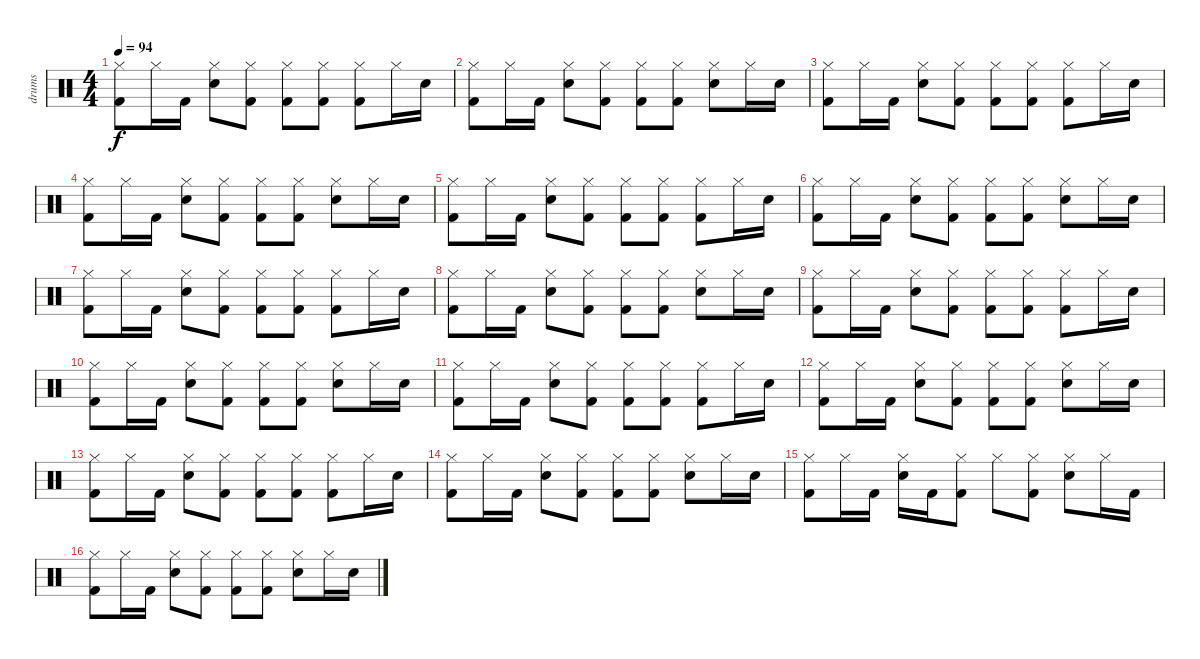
\track ("drums" "drums") {instrument percussion}
\staff {score}
\articulation defaults
\ts (4 4)
\tempo 94
\clef neutral
\ks c
("Kick (hit) 2" "Hi-Hat (closed)").8{dy f} "Hi-Hat (closed)".16 "Kick (hit) 2".16 ("Hi-Hat (closed)" "Snare (hit) 2").8 ("Kick (hit) 2" "Hi-Hat (closed)").8 ("Kick (hit) 2" "Hi-Hat (closed)").8 ("Hi-Hat (closed)" "Kick (hit) 2").8 ("Hi-Hat (closed)" "Kick (hit) 2").8 "Hi-Hat (closed)".16 "Snare (hit) 2".16 |
("Kick (hit) 2" "Hi-Hat (closed)").8 "Hi-Hat (closed)".16 "Kick (hit) 2".16 ("Hi-Hat (closed)" "Snare (hit) 2").8 ("Kick (hit) 2" "Hi-Hat (closed)").8 ("Kick (hit) 2" "Hi-Hat (closed)").8 ("Hi-Hat (closed)" "Kick (hit) 2").8 ("Hi-Hat (closed)" "Snare (hit) 2").8 "Hi-Hat (closed)".16 "Snare (hit) 2".16 |
("Kick (hit) 2" "Hi-Hat (closed)").8 "Hi-Hat (closed)".16 "Kick (hit) 2".16 ("Hi-Hat (closed)" "Snare (hit) 2").8 ("Kick (hit) 2" "Hi-Hat (closed)").8 ("Kick (hit) 2" "Hi-Hat (closed)").8 ("Hi-Hat (closed)" "Kick (hit) 2").8 ("Hi-Hat (closed)" "Kick (hit) 2").8 "Hi-Hat (closed)".16 "Snare (hit) 2".16 |
("Kick (hit) 2" "Hi-Hat (closed)").8 "Hi-Hat (closed)".16 "Kick (hit) 2".16 ("Hi-Hat (closed)" "Snare (hit) 2").8 ("Kick (hit) 2" "Hi-Hat (closed)").8 ("Kick (hit) 2" "Hi-Hat (closed)").8 ("Hi-Hat (closed)" "Kick (hit) 2").8 ("Hi-Hat (closed)" "Snare (hit) 2").8 "Hi-Hat (closed)".16 "Snare (hit) 2".16 |
("Kick (hit) 2" "Hi-Hat (closed)").8 "Hi-Hat (closed)".16 "Kick (hit) 2".16 ("Hi-Hat (closed)" "Snare (hit) 2").8 ("Kick (hit) 2" "Hi-Hat (closed)").8 ("Kick (hit) 2" "Hi-Hat (closed)").8 ("Hi-Hat (closed)" "Kick (hit) 2").8 ("Hi-Hat (closed)" "Kick (hit) 2").8 "Hi-Hat (closed)".16 "Snare (hit) 2".16 |
("Kick (hit) 2" "Hi-Hat (closed)").8 "Hi-Hat (closed)".16 "Kick (hit) 2".16 ("Hi-Hat (closed)" "Snare (hit) 2").8 ("Kick (hit) 2" "Hi-Hat (closed)").8 ("Kick (hit) 2" "Hi-Hat (closed)").8 ("Hi-Hat (closed)" "Kick (hit) 2").8 ("Hi-Hat (closed)" "Snare (hit) 2").8 "Hi-Hat (closed)".16 "Snare (hit) 2".16 |
("Kick (hit) 2" "Hi-Hat (closed)").8 "Hi-Hat (closed)".16 "Kick (hit) 2".16 ("Hi-Hat (closed)" "Snare (hit) 2").8 ("Kick (hit) 2" "Hi-Hat (closed)").8 ("Kick (hit) 2" "Hi-Hat (closed)").8 ("Hi-Hat (closed)" "Kick (hit) 2").8 ("Hi-Hat (closed)" "Kick (hit) 2").8 "Hi-Hat (closed)".16 "Snare (hit) 2".16 |
("Kick (hit) 2" "Hi-Hat (closed)").8 "Hi-Hat (closed)".16 "Kick (hit) 2".16 ("Hi-Hat (closed)" "Snare (hit) 2").8 ("Kick (hit) 2" "Hi-Hat (closed)").8 ("Kick (hit) 2" "Hi-Hat (closed)").8 ("Hi-Hat (closed)" "Kick (hit) 2").8 ("Hi-Hat (closed)" "Snare (hit) 2").8 "Hi-Hat (closed)".16 "Snare (hit) 2".16 |
("Kick (hit) 2" "Hi-Hat (closed)").8 "Hi-Hat (closed)".16 "Kick (hit) 2".16 ("Hi-Hat (closed)" "Snare (hit) 2").8 ("Kick (hit) 2" "Hi-Hat (closed)").8 ("Kick (hit) 2" "Hi-Hat (closed)").8 ("Hi-Hat (closed)" "Kick (hit) 2").8 ("Hi-Hat (closed)" "Kick (hit) 2").8 "Hi-Hat (closed)".16 "Snare (hit) 2".16 |
("Kick (hit) 2" "Hi-Hat (closed)").8 "Hi-Hat (closed)".16 "Kick (hit) 2".16 ("Hi-Hat (closed)" "Snare (hit) 2").8 ("Kick (hit) 2" "Hi-Hat (closed)").8 ("Kick (hit) 2" "Hi-Hat (closed)").8 ("Hi-Hat (closed)" "Kick (hit) 2").8 ("Hi-Hat (closed)" "Snare (hit) 2").8 "Hi-Hat (closed)".16 "Snare (hit) 2".16 |
("Kick (hit) 2" "Hi-Hat (closed)").8 "Hi-Hat (closed)".16 "Kick (hit) 2".16 ("Hi-Hat (closed)" "Snare (hit) 2").8 ("Kick (hit) 2" "Hi-Hat (closed)").8 ("Kick (hit) 2" "Hi-Hat (closed)").8 ("Hi-Hat (closed)" "Kick (hit) 2").8 ("Hi-Hat (closed)" "Kick (hit) 2").8 "Hi-Hat (closed)".16 "Snare (hit) 2".16 |
("Kick (hit) 2" "Hi-Hat (closed)").8 "Hi-Hat (closed)".16 "Kick (hit) 2".16 ("Hi-Hat (closed)" "Snare (hit) 2").8 ("Kick (hit) 2" "Hi-Hat (closed)").8 ("Kick (hit) 2" "Hi-Hat (closed)").8 ("Hi-Hat (closed)" "Kick (hit) 2").8 ("Hi-Hat (closed)" "Snare (hit) 2").8 "Hi-Hat (closed)".16 "Snare (hit) 2".16 |
("Kick (hit) 2" "Hi-Hat (closed)").8 "Hi-Hat (closed)".16 "Kick (hit) 2".16 ("Hi-Hat (closed)" "Snare (hit) 2").8 ("Kick (hit) 2" "Hi-Hat (closed)").8 ("Kick (hit) 2" "Hi-Hat (closed)").8 ("Hi-Hat (closed)" "Kick (hit) 2").8 ("Hi-Hat (closed)" "Kick (hit) 2").8 "Hi-Hat (closed)".16 "Snare (hit) 2".16 |
("Kick (hit) 2" "Hi-Hat (closed)").8 "Hi-Hat (closed)".16 "Kick (hit) 2".16 ("Hi-Hat (closed)" "Snare (hit) 2").8 ("Kick (hit) 2" "Hi-Hat (closed)").8 ("Kick (hit) 2" "Hi-Hat (closed)").8 ("Hi-Hat (closed)" "Kick (hit) 2").8 ("Hi-Hat (closed)" "Snare (hit) 2").8 "Hi-Hat (closed)".16 "Snare (hit) 2".16 |
("Hi-Hat (closed)" "Kick (hit) 2").8 "Hi-Hat (closed)".16 "Kick (hit) 2".16 ("Hi-Hat (closed)" "Snare (hit) 2").16 "Kick (hit) 2".16 ("Hi-Hat (closed)" "Kick (hit) 2").8 "Hi-Hat (closed)".8 ("Hi-Hat (closed)" "Kick (hit) 2").8 ("Hi-Hat (closed)" "Snare (hit) 2").8 "Hi-Hat (closed)".16 "Kick (hit) 2".16 |
("Kick (hit) 2" "Hi-Hat (closed)").8 "Hi-Hat (closed)".16 "Kick (hit) 2".16 ("Hi-Hat (closed)" "Snare (hit) 2").8 ("Kick (hit) 2" "Hi-Hat (closed)").8 ("Kick (hit) 2" "Hi-Hat (closed)").8 ("Hi-Hat (closed)" "Kick (hit) 2").8 ("Hi-Hat (closed)" "Snare (hit) 2").8 "Hi-Hat (closed)".16 "Snare (hit) 2".16
